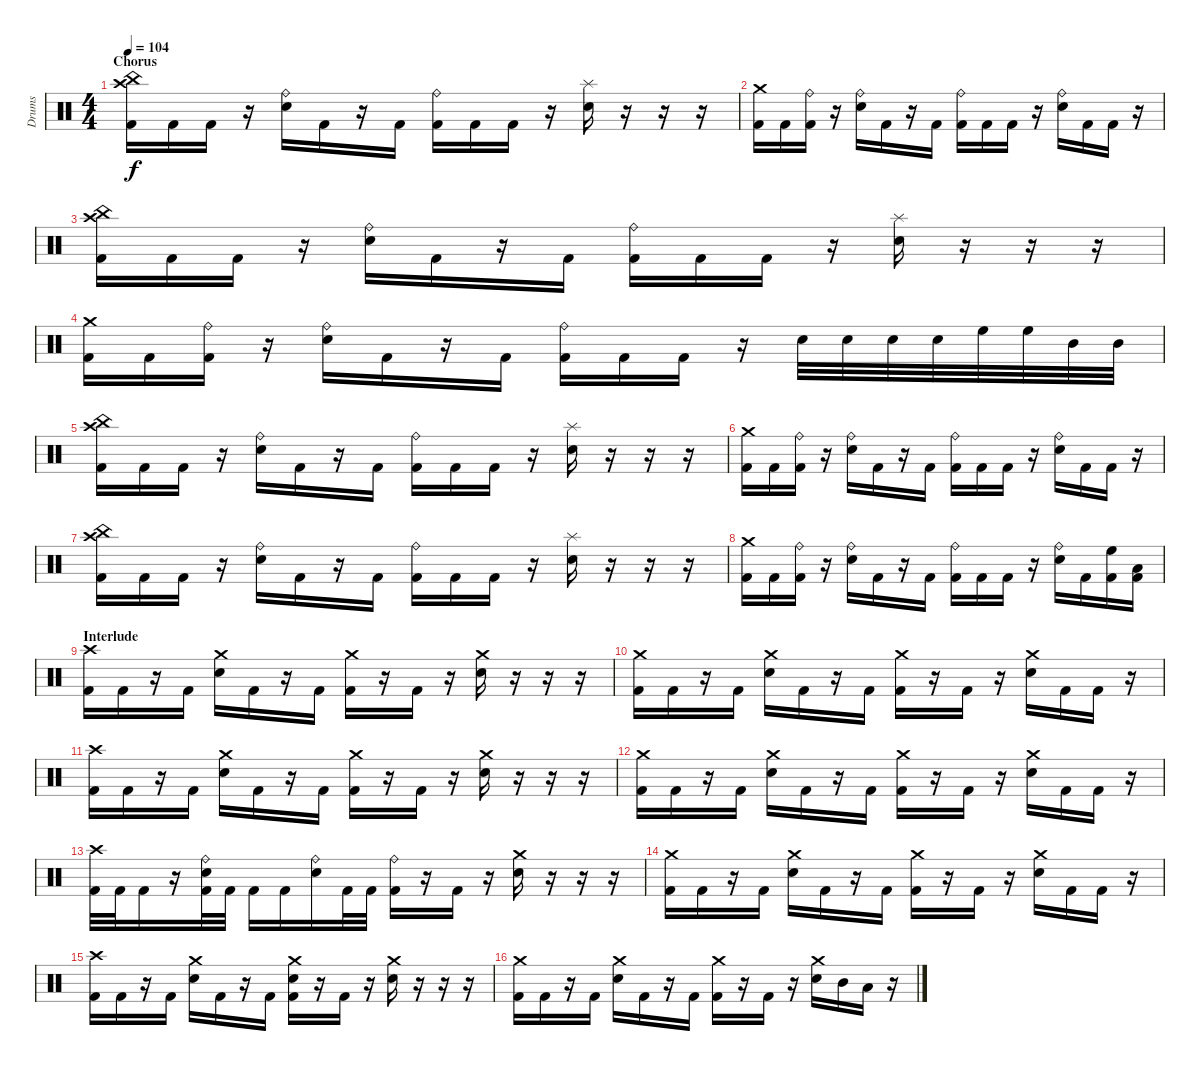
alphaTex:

\track ("Drums" "Drums") {instrument percussion}
\staff {score}
\articulation defaults
\ts (4 4)
\section ("" "Chorus")
\tempo 104
\clef neutral
\ks c
("China (hit)" "Crash high (hit)" "Kick (hit) 2").16{dy f} "Kick (hit) 2".16 "Kick (hit) 2".16 r.16 ("Ride (bell)" "Electric Snare (hit)").16 "Kick (hit) 2".16 r.16 "Kick (hit) 2".16 ("Ride (bell)" "Kick (hit) 2").16 "Kick (hit) 2".16 "Kick (hit) 2".16 r.16 ("Splash (hit)" "Electric Snare (hit)").16 r.16 r.16 r.16 |
("Crash medium (hit)" "Kick (hit) 2").16 "Kick (hit) 2".16 ("Ride (bell)" "Kick (hit) 2").16 r.16 ("Ride (bell)" "Electric Snare (hit)").16 "Kick (hit) 2".16 r.16 "Kick (hit) 2".16 ("Ride (bell)" "Kick (hit) 2").16 "Kick (hit) 2".16 "Kick (hit) 2".16 r.16 ("Ride (bell)" "Electric Snare (hit)").16 "Kick (hit) 2".16 "Kick (hit) 2".16 r.16 |
("China (hit)" "Crash high (hit)" "Kick (hit) 2").16 "Kick (hit) 2".16 "Kick (hit) 2".16 r.16 ("Ride (bell)" "Electric Snare (hit)").16 "Kick (hit) 2".16 r.16 "Kick (hit) 2".16 ("Ride (bell)" "Kick (hit) 2").16 "Kick (hit) 2".16 "Kick (hit) 2".16 r.16 ("Splash (hit)" "Electric Snare (hit)").16 r.16 r.16 r.16 |
("Crash medium (hit)" "Kick (hit) 2").16 "Kick (hit) 2".16 ("Ride (bell)" "Kick (hit) 2").16 r.16 ("Ride (bell)" "Electric Snare (hit)").16 "Kick (hit) 2".16 r.16 "Kick (hit) 2".16 ("Ride (bell)" "Kick (hit) 2").16 "Kick (hit) 2".16 "Kick (hit) 2".16 r.16 "Electric Snare (hit)".32 "Electric Snare (hit)".32 "Electric Snare (hit)".32 "Electric Snare (hit)".32 "High Floor Tom (hit)".32 "High Floor Tom (hit)".32 "Mid Tom (hit)".32 "Mid Tom (hit)".32 |
("China (hit)" "Crash high (hit)" "Kick (hit) 2").16 "Kick (hit) 2".16 "Kick (hit) 2".16 r.16 ("Ride (bell)" "Electric Snare (hit)").16 "Kick (hit) 2".16 r.16 "Kick (hit) 2".16 ("Ride (bell)" "Kick (hit) 2").16 "Kick (hit) 2".16 "Kick (hit) 2".16 r.16 ("Splash (hit)" "Electric Snare (hit)").16 r.16 r.16 r.16 |
("Crash medium (hit)" "Kick (hit) 2").16 "Kick (hit) 2".16 ("Ride (bell)" "Kick (hit) 2").16 r.16 ("Ride (bell)" "Electric Snare (hit)").16 "Kick (hit) 2".16 r.16 "Kick (hit) 2".16 ("Ride (bell)" "Kick (hit) 2").16 "Kick (hit) 2".16 "Kick (hit) 2".16 r.16 ("Ride (bell)" "Electric Snare (hit)").16 "Kick (hit) 2".16 "Kick (hit) 2".16 r.16 |
("China (hit)" "Crash high (hit)" "Kick (hit) 2").16 "Kick (hit) 2".16 "Kick (hit) 2".16 r.16 ("Ride (bell)" "Electric Snare (hit)").16 "Kick (hit) 2".16 r.16 "Kick (hit) 2".16 ("Ride (bell)" "Kick (hit) 2").16 "Kick (hit) 2".16 "Kick (hit) 2".16 r.16 ("Splash (hit)" "Electric Snare (hit)").16 r.16 r.16 r.16 |
("Crash medium (hit)" "Kick (hit) 2").16 "Kick (hit) 2".16 ("Ride (bell)" "Kick (hit) 2").16 r.16 ("Ride (bell)" "Electric Snare (hit)").16 "Kick (hit) 2".16 r.16 "Kick (hit) 2".16 ("Ride (bell)" "Kick (hit) 2").16 "Kick (hit) 2".16 "Kick (hit) 2".16 r.16 ("Ride (bell)" "Electric Snare (hit)").16 "Kick (hit) 2".16 ("High Floor Tom (hit)" "Kick (hit) 2").16 ("Low Floor Tom (hit)" "Kick (hit) 2").16 |
\section ("" "Interlude")
("Crash high (hit)" "Kick (hit) 2").16 "Kick (hit) 2".16 r.16 "Kick (hit) 2".16 ("Crash medium (hit)" "Electric Snare (hit)").16 "Kick (hit) 2".16 r.16 "Kick (hit) 2".16 ("Crash medium (hit)" "Kick (hit) 2").16 r.16 "Kick (hit) 2".16 r.16 ("Crash medium (hit)" "Electric Snare (hit)").16 r.16 r.16 r.16 |
("Crash medium (hit)" "Kick (hit) 2").16 "Kick (hit) 2".16 r.16 "Kick (hit) 2".16 ("Crash medium (hit)" "Electric Snare (hit)").16 "Kick (hit) 2".16 r.16 "Kick (hit) 2".16 ("Crash medium (hit)" "Kick (hit) 2").16 r.16 "Kick (hit) 2".16 r.16 ("Crash medium (hit)" "Electric Snare (hit)").16 "Kick (hit) 2".16 "Kick (hit) 2".16 r.16 |
("Crash high (hit)" "Kick (hit) 2").16 "Kick (hit) 2".16 r.16 "Kick (hit) 2".16 ("Crash medium (hit)" "Electric Snare (hit)").16 "Kick (hit) 2".16 r.16 "Kick (hit) 2".16 ("Crash medium (hit)" "Kick (hit) 2").16 r.16 "Kick (hit) 2".16 r.16 ("Crash medium (hit)" "Electric Snare (hit)").16 r.16 r.16 r.16 |
("Crash medium (hit)" "Kick (hit) 2").16 "Kick (hit) 2".16 r.16 "Kick (hit) 2".16 ("Crash medium (hit)" "Electric Snare (hit)").16 "Kick (hit) 2".16 r.16 "Kick (hit) 2".16 ("Crash medium (hit)" "Kick (hit) 2").16 r.16 "Kick (hit) 2".16 r.16 ("Crash medium (hit)" "Electric Snare (hit)").16 "Kick (hit) 2".16 "Kick (hit) 2".16 r.16 |
("Crash high (hit)" "Kick (hit) 2").32 "Kick (hit) 2".32 "Kick (hit) 2".16 r.16 ("Ride (bell)" "Electric Snare (hit)" "Kick (hit) 2").32 "Kick (hit) 2".32 "Kick (hit) 2".16 "Kick (hit) 2".16 ("Ride (bell)" "Electric Snare (hit)").16 "Kick (hit) 2".32 "Kick (hit) 2".32 ("Ride (bell)" "Kick (hit) 2").16 r.16 "Kick (hit) 2".16 r.16 ("Crash medium (hit)" "Electric Snare (hit)").16 r.16 r.16 r.16 |
("Crash medium (hit)" "Kick (hit) 2").16 "Kick (hit) 2".16 r.16 "Kick (hit) 2".16 ("Crash medium (hit)" "Electric Snare (hit)").16 "Kick (hit) 2".16 r.16 "Kick (hit) 2".16 ("Crash medium (hit)" "Kick (hit) 2").16 r.16 "Kick (hit) 2".16 r.16 ("Crash medium (hit)" "Electric Snare (hit)").16 "Kick (hit) 2".16 "Kick (hit) 2".16 r.16 |
("Crash high (hit)" "Kick (hit) 2").16 "Kick (hit) 2".16 r.16 "Kick (hit) 2".16 ("Crash medium (hit)" "Electric Snare (hit)").16 "Kick (hit) 2".16 r.16 "Kick (hit) 2".16 ("Crash medium (hit)" "Electric Snare (hit)" "Kick (hit) 2").16 r.16 "Kick (hit) 2".16 r.16 ("Crash medium (hit)" "Electric Snare (hit)").16 r.16 r.16 r.16 |
("Crash medium (hit)" "Kick (hit) 2").16 "Kick (hit) 2".16 r.16 "Kick (hit) 2".16 ("Crash medium (hit)" "Electric Snare (hit)").16 "Kick (hit) 2".16 r.16 "Kick (hit) 2".16 ("Crash medium (hit)" "Kick (hit) 2").16 r.16 "Kick (hit) 2".16 r.16 ("Crash medium (hit)" "Electric Snare (hit)").16 "Mid Tom (hit)".16 "Low Tom (hit)".16 r.16
